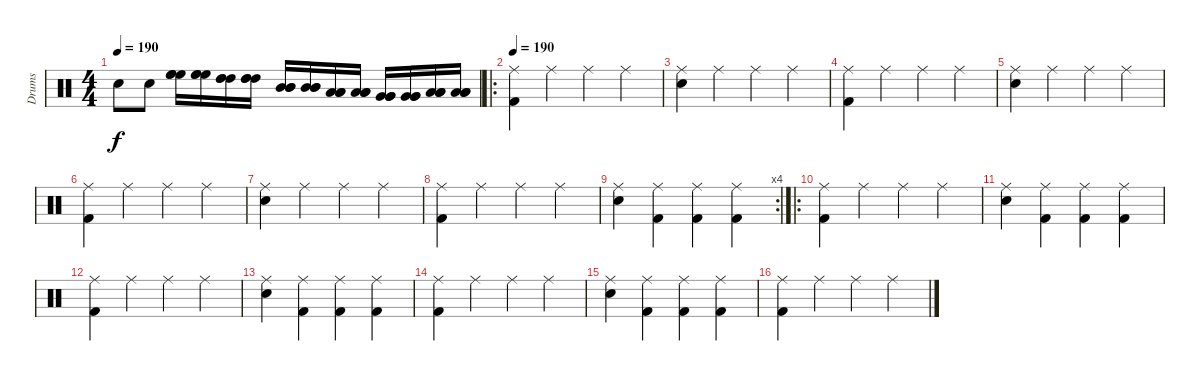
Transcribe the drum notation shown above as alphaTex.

\track ("Drums" "Drums") {instrument percussion}
\staff {score}
\articulation defaults
\ts (4 4)
\tempo 190
\clef neutral
\ks c "Electric Snare (hit)".8{dy f} "Electric Snare (hit)".8
("High Floor Tom (hit)" "High Floor Tom (hit)" "High Floor Tom (hit)").16 ("High Floor Tom (hit)" "High Floor Tom (hit)" "High Floor Tom (hit)").16 ("High Tom (hit)" "High Tom (hit)" "High Tom (hit)").16 ("High Tom (hit)" "High Tom (hit)" "High Tom (hit)").16 ("Mid Tom (hit)" "Mid Tom (hit)" "Mid Tom (hit)").16 ("Mid Tom (hit)" "Mid Tom (hit)" "Mid Tom (hit)").16 ("Low Tom (hit)" "Low Tom (hit)" "Low Tom (hit)").16 ("Low Tom (hit)" "Low Tom (hit)" "Low Tom (hit)").16 ("Very Low Tom (hit)" "Very Low Tom (hit)" "Very Low Tom (hit)").16 ("Very Low Tom (hit)" "Very Low Tom (hit)" "Very Low Tom (hit)").16 ("Low Floor Tom (hit)" "Low Floor Tom (hit)" "Low Floor Tom (hit)").16 ("Low Floor Tom (hit)" "Low Floor Tom (hit)" "Low Floor Tom (hit)").16 |
\ro
\tempo 190
("Ride (middle)" "Kick (hit) 2").4 "Ride (middle)".4 "Ride (middle)".4 "Ride (middle)".4 |
("Ride (middle)" "Electric Snare (hit)").4 "Ride (middle)".4 "Ride (middle)".4 "Ride (middle)".4 |
("Ride (middle)" "Kick (hit) 2").4 "Ride (middle)".4 "Ride (middle)".4 "Ride (middle)".4 |
("Ride (middle)" "Electric Snare (hit)").4 "Ride (middle)".4 "Ride (middle)".4 "Ride (middle)".4 |
("Ride (middle)" "Kick (hit) 2").4 "Ride (middle)".4 "Ride (middle)".4 "Ride (middle)".4 |
("Ride (middle)" "Electric Snare (hit)").4 "Ride (middle)".4 "Ride (middle)".4 "Ride (middle)".4 |
("Ride (middle)" "Kick (hit) 2").4 "Ride (middle)".4 "Ride (middle)".4 "Ride (middle)".4 |
\rc 4
("Ride (middle)" "Electric Snare (hit)").4 ("Ride (middle)" "Kick (hit) 2").4 ("Ride (middle)" "Kick (hit) 2").4 ("Ride (middle)" "Kick (hit) 2").4 |
\ro
("Ride (middle)" "Kick (hit) 2").4 "Ride (middle)".4 "Ride (middle)".4 "Ride (middle)".4 |
("Ride (middle)" "Electric Snare (hit)").4 ("Ride (middle)" "Kick (hit) 2").4 ("Ride (middle)" "Kick (hit) 2").4 ("Ride (middle)" "Kick (hit) 2").4 |
("Ride (middle)" "Kick (hit) 2").4 "Ride (middle)".4 "Ride (middle)".4 "Ride (middle)".4 |
("Ride (middle)" "Electric Snare (hit)").4 ("Ride (middle)" "Kick (hit) 2").4 ("Ride (middle)" "Kick (hit) 2").4 ("Ride (middle)" "Kick (hit) 2").4 |
("Ride (middle)" "Kick (hit) 2").4 "Ride (middle)".4 "Ride (middle)".4 "Ride (middle)".4 |
("Ride (middle)" "Electric Snare (hit)").4 ("Ride (middle)" "Kick (hit) 2").4 ("Ride (middle)" "Kick (hit) 2").4 ("Ride (middle)" "Kick (hit) 2").4 |
("Ride (middle)" "Kick (hit) 2").4 "Ride (middle)".4 "Ride (middle)".4 "Ride (middle)".4
